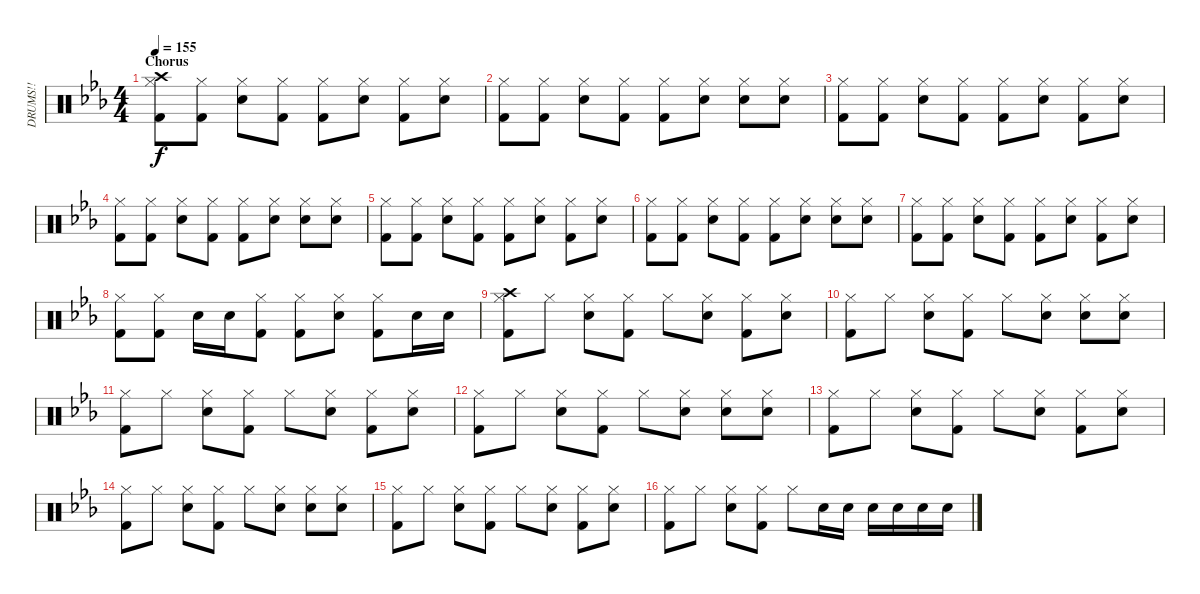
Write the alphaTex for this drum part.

\track ("DRUMS!!" "DRUMS!!") {instrument percussion}
\staff {score}
\articulation defaults
\ts (4 4)
\section ("" "Chorus")
\tempo 155
\clef neutral
\ks eb
("Crash high (hit)" "Hi-Hat (closed)" "Kick (hit) 2").8{dy f} ("Hi-Hat (closed)" "Kick (hit) 2").8 ("Hi-Hat (closed)" "Snare (hit) 2").8 ("Hi-Hat (closed)" "Kick (hit) 2").8 ("Hi-Hat (closed)" "Kick (hit) 2").8 ("Hi-Hat (closed)" "Snare (hit) 2").8 ("Hi-Hat (closed)" "Kick (hit) 2").8 ("Hi-Hat (closed)" "Snare (hit) 2").8 |
("Hi-Hat (closed)" "Kick (hit) 2").8 ("Hi-Hat (closed)" "Kick (hit) 2").8 ("Hi-Hat (closed)" "Snare (hit) 2").8 ("Hi-Hat (closed)" "Kick (hit) 2").8 ("Hi-Hat (closed)" "Kick (hit) 2").8 ("Hi-Hat (closed)" "Snare (hit) 2").8 ("Hi-Hat (closed)" "Snare (hit) 2").8 ("Hi-Hat (closed)" "Snare (hit) 2").8 |
("Hi-Hat (closed)" "Kick (hit) 2").8 ("Hi-Hat (closed)" "Kick (hit) 2").8 ("Hi-Hat (closed)" "Snare (hit) 2").8 ("Hi-Hat (closed)" "Kick (hit) 2").8 ("Hi-Hat (closed)" "Kick (hit) 2").8 ("Hi-Hat (closed)" "Snare (hit) 2").8 ("Hi-Hat (closed)" "Kick (hit) 2").8 ("Hi-Hat (closed)" "Snare (hit) 2").8 |
("Hi-Hat (closed)" "Kick (hit) 2").8 ("Hi-Hat (closed)" "Kick (hit) 2").8 ("Hi-Hat (closed)" "Snare (hit) 2").8 ("Hi-Hat (closed)" "Kick (hit) 2").8 ("Hi-Hat (closed)" "Kick (hit) 2").8 ("Hi-Hat (closed)" "Snare (hit) 2").8 ("Hi-Hat (closed)" "Snare (hit) 2").8 ("Hi-Hat (closed)" "Snare (hit) 2").8 |
("Hi-Hat (closed)" "Kick (hit) 2").8 ("Hi-Hat (closed)" "Kick (hit) 2").8 ("Hi-Hat (closed)" "Snare (hit) 2").8 ("Hi-Hat (closed)" "Kick (hit) 2").8 ("Hi-Hat (closed)" "Kick (hit) 2").8 ("Hi-Hat (closed)" "Snare (hit) 2").8 ("Hi-Hat (closed)" "Kick (hit) 2").8 ("Hi-Hat (closed)" "Snare (hit) 2").8 |
("Hi-Hat (closed)" "Kick (hit) 2").8 ("Hi-Hat (closed)" "Kick (hit) 2").8 ("Hi-Hat (closed)" "Snare (hit) 2").8 ("Hi-Hat (closed)" "Kick (hit) 2").8 ("Hi-Hat (closed)" "Kick (hit) 2").8 ("Hi-Hat (closed)" "Snare (hit) 2").8 ("Hi-Hat (closed)" "Snare (hit) 2").8 ("Hi-Hat (closed)" "Snare (hit) 2").8 |
("Hi-Hat (closed)" "Kick (hit) 2").8 ("Hi-Hat (closed)" "Kick (hit) 2").8 ("Hi-Hat (closed)" "Snare (hit) 2").8 ("Hi-Hat (closed)" "Kick (hit) 2").8 ("Hi-Hat (closed)" "Kick (hit) 2").8 ("Hi-Hat (closed)" "Snare (hit) 2").8 ("Hi-Hat (closed)" "Kick (hit) 2").8 ("Hi-Hat (closed)" "Snare (hit) 2").8 |
("Hi-Hat (closed)" "Kick (hit) 2").8 ("Hi-Hat (closed)" "Kick (hit) 2").8 "Snare (hit) 2".16 "Snare (hit) 2".16 ("Hi-Hat (closed)" "Kick (hit) 2").8 ("Hi-Hat (closed)" "Kick (hit) 2").8 ("Hi-Hat (closed)" "Snare (hit) 2").8 ("Hi-Hat (closed)" "Kick (hit) 2").8 "Snare (hit) 2".16 "Snare (hit) 2".16 |
("Crash high (hit)" "Hi-Hat (closed)" "Kick (hit) 2").8 "Hi-Hat (closed)".8 ("Hi-Hat (closed)" "Snare (hit) 2").8 ("Hi-Hat (closed)" "Kick (hit) 2").8 "Hi-Hat (closed)".8 ("Hi-Hat (closed)" "Snare (hit) 2").8 ("Hi-Hat (closed)" "Kick (hit) 2").8 ("Hi-Hat (closed)" "Snare (hit) 2").8 |
("Hi-Hat (closed)" "Kick (hit) 2").8 "Hi-Hat (closed)".8 ("Hi-Hat (closed)" "Snare (hit) 2").8 ("Hi-Hat (closed)" "Kick (hit) 2").8 "Hi-Hat (closed)".8 ("Hi-Hat (closed)" "Snare (hit) 2").8 ("Hi-Hat (closed)" "Snare (hit) 2").8 ("Hi-Hat (closed)" "Snare (hit) 2").8 |
("Hi-Hat (closed)" "Kick (hit) 2").8 "Hi-Hat (closed)".8 ("Hi-Hat (closed)" "Snare (hit) 2").8 ("Hi-Hat (closed)" "Kick (hit) 2").8 "Hi-Hat (closed)".8 ("Hi-Hat (closed)" "Snare (hit) 2").8 ("Hi-Hat (closed)" "Kick (hit) 2").8 ("Hi-Hat (closed)" "Snare (hit) 2").8 |
("Hi-Hat (closed)" "Kick (hit) 2").8 "Hi-Hat (closed)".8 ("Hi-Hat (closed)" "Snare (hit) 2").8 ("Hi-Hat (closed)" "Kick (hit) 2").8 "Hi-Hat (closed)".8 ("Hi-Hat (closed)" "Snare (hit) 2").8 ("Hi-Hat (closed)" "Snare (hit) 2").8 ("Hi-Hat (closed)" "Snare (hit) 2").8 |
("Hi-Hat (closed)" "Kick (hit) 2").8 "Hi-Hat (closed)".8 ("Hi-Hat (closed)" "Snare (hit) 2").8 ("Hi-Hat (closed)" "Kick (hit) 2").8 "Hi-Hat (closed)".8 ("Hi-Hat (closed)" "Snare (hit) 2").8 ("Hi-Hat (closed)" "Kick (hit) 2").8 ("Hi-Hat (closed)" "Snare (hit) 2").8 |
("Hi-Hat (closed)" "Kick (hit) 2").8 "Hi-Hat (closed)".8 ("Hi-Hat (closed)" "Snare (hit) 2").8 ("Hi-Hat (closed)" "Kick (hit) 2").8 "Hi-Hat (closed)".8 ("Hi-Hat (closed)" "Snare (hit) 2").8 ("Hi-Hat (closed)" "Snare (hit) 2").8 ("Hi-Hat (closed)" "Snare (hit) 2").8 |
("Hi-Hat (closed)" "Kick (hit) 2").8 "Hi-Hat (closed)".8 ("Hi-Hat (closed)" "Snare (hit) 2").8 ("Hi-Hat (closed)" "Kick (hit) 2").8 "Hi-Hat (closed)".8 ("Hi-Hat (closed)" "Snare (hit) 2").8 ("Hi-Hat (closed)" "Kick (hit) 2").8 ("Hi-Hat (closed)" "Snare (hit) 2").8 |
("Hi-Hat (closed)" "Kick (hit) 2").8 "Hi-Hat (closed)".8 ("Hi-Hat (closed)" "Snare (hit) 2").8 ("Hi-Hat (closed)" "Kick (hit) 2").8 "Hi-Hat (closed)".8 "Snare (hit) 2".16 "Snare (hit) 2".16 "Snare (hit) 2".16 "Snare (hit) 2".16 "Snare (hit) 2".16 "Snare (hit) 2".16
